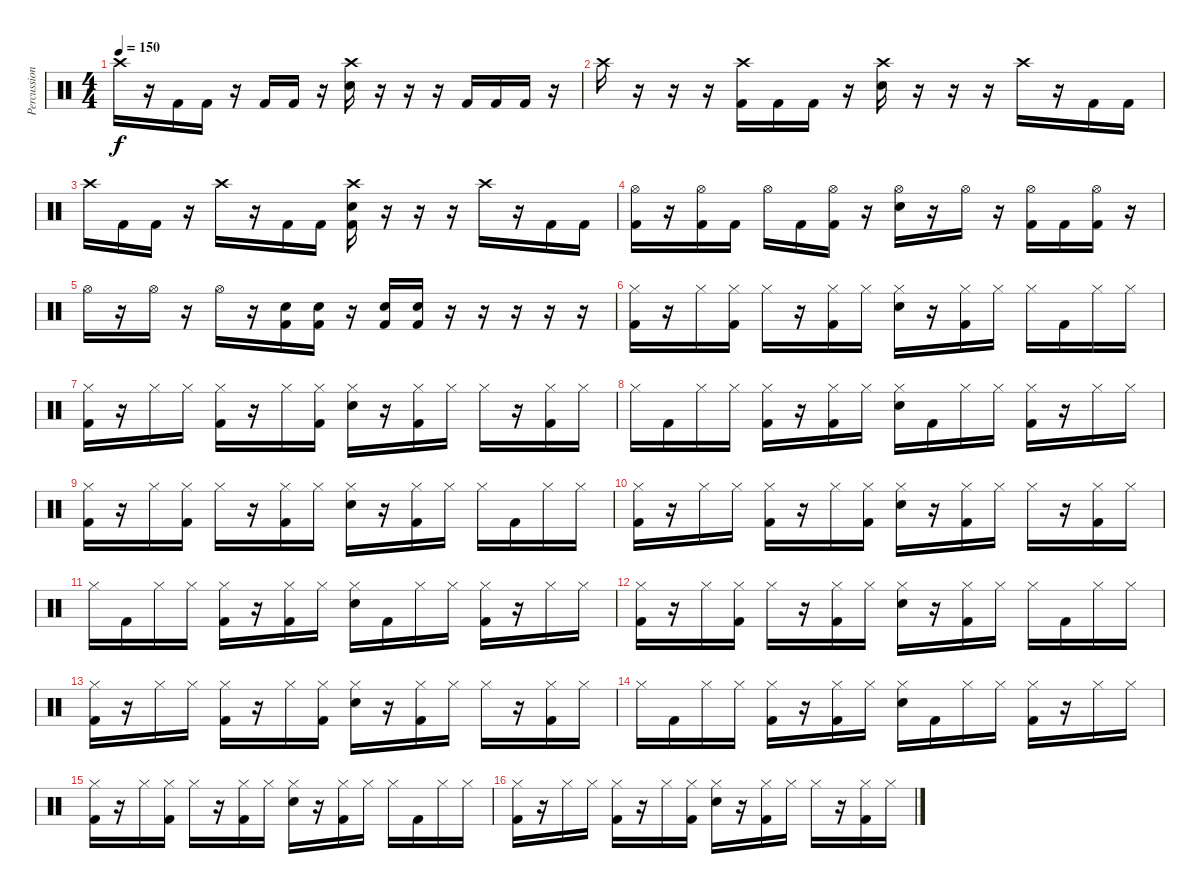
\track ("Percussion" "Percussion") {instrument percussion}
\staff {score}
\articulation defaults
\ts (4 4)
\tempo 150
\clef neutral
\ks c "Crash high (hit)".16{dy f}
r.16 "Kick (hit) 2".16 "Kick (hit) 2".16 r.16 "Kick (hit) 2".16 "Kick (hit) 2".16 r.16 ("Crash high (hit)" "Electric Snare (hit)").16 r.16 r.16 r.16 "Kick (hit) 2".16 "Kick (hit) 2".16 "Kick (hit) 2".16 r.16 |
"Crash high (hit)".16 r.16 r.16 r.16 ("Crash high (hit)" "Kick (hit) 2").16 "Kick (hit) 2".16 "Kick (hit) 2".16 r.16 ("Crash high (hit)" "Electric Snare (hit)").16 r.16 r.16 r.16 "Crash high (hit)".16 r.16 "Kick (hit) 2".16 "Kick (hit) 2".16 |
"Crash high (hit)".16 "Kick (hit) 2".16 "Kick (hit) 2".16 r.16 "Crash high (hit)".16 r.16 "Kick (hit) 2".16 "Kick (hit) 2".16 ("Crash high (hit)" "Electric Snare (hit)" "Kick (hit) 2").16 r.16 r.16 r.16 "Crash high (hit)".16 r.16 "Kick (hit) 2".16 "Kick (hit) 2".16 |
("Hi-Hat (open)" "Kick (hit) 2").16 r.16 ("Hi-Hat (open)" "Kick (hit) 2").16 "Kick (hit) 2".16 "Hi-Hat (open)".16 "Kick (hit) 2".16 ("Hi-Hat (open)" "Kick (hit) 2").16 r.16 ("Hi-Hat (open)" "Electric Snare (hit)").16 r.16 "Hi-Hat (open)".16 r.16 ("Hi-Hat (open)" "Kick (hit) 2").16 "Kick (hit) 2".16 ("Hi-Hat (open)" "Kick (hit) 2").16 r.16 |
"Hi-Hat (open)".16 r.16 "Hi-Hat (open)".16 r.16 "Hi-Hat (open)".16 r.16 ("Electric Snare (hit)" "Kick (hit) 2").16 ("Electric Snare (hit)" "Kick (hit) 2").16 r.16 ("Electric Snare (hit)" "Kick (hit) 2").16 ("Electric Snare (hit)" "Kick (hit) 2").16 r.16 r.16 r.16 r.16 r.16 |
("Hi-Hat (closed)" "Kick (hit) 2").16 r.16 "Hi-Hat (closed)".16 ("Hi-Hat (closed)" "Kick (hit) 2").16 "Hi-Hat (closed)".16 r.16 ("Hi-Hat (closed)" "Kick (hit) 2").16 "Hi-Hat (closed)".16 ("Electric Snare (hit)" "Hi-Hat (closed)").16 r.16 ("Hi-Hat (closed)" "Kick (hit) 2").16 "Hi-Hat (closed)".16 "Hi-Hat (closed)".16 "Kick (hit) 2".16 "Hi-Hat (closed)".16 "Hi-Hat (closed)".16 |
("Hi-Hat (closed)" "Kick (hit) 2").16 r.16 "Hi-Hat (closed)".16 "Hi-Hat (closed)".16 ("Hi-Hat (closed)" "Kick (hit) 2").16 r.16 "Hi-Hat (closed)".16 ("Hi-Hat (closed)" "Kick (hit) 2").16 ("Electric Snare (hit)" "Hi-Hat (closed)").16 r.16 ("Hi-Hat (closed)" "Kick (hit) 2").16 "Hi-Hat (closed)".16 "Hi-Hat (closed)".16 r.16 ("Hi-Hat (closed)" "Kick (hit) 2").16 "Hi-Hat (closed)".16 |
"Hi-Hat (closed)".16 "Kick (hit) 2".16 "Hi-Hat (closed)".16 "Hi-Hat (closed)".16 ("Hi-Hat (closed)" "Kick (hit) 2").16 r.16 ("Hi-Hat (closed)" "Kick (hit) 2").16 "Hi-Hat (closed)".16 ("Electric Snare (hit)" "Hi-Hat (closed)").16 "Kick (hit) 2".16 "Hi-Hat (closed)".16 "Hi-Hat (closed)".16 ("Hi-Hat (closed)" "Kick (hit) 2").16 r.16 "Hi-Hat (closed)".16 "Hi-Hat (closed)".16 |
("Hi-Hat (closed)" "Kick (hit) 2").16 r.16 "Hi-Hat (closed)".16 ("Hi-Hat (closed)" "Kick (hit) 2").16 "Hi-Hat (closed)".16 r.16 ("Hi-Hat (closed)" "Kick (hit) 2").16 "Hi-Hat (closed)".16 ("Electric Snare (hit)" "Hi-Hat (closed)").16 r.16 ("Hi-Hat (closed)" "Kick (hit) 2").16 "Hi-Hat (closed)".16 "Hi-Hat (closed)".16 "Kick (hit) 2".16 "Hi-Hat (closed)".16 "Hi-Hat (closed)".16 |
("Hi-Hat (closed)" "Kick (hit) 2").16 r.16 "Hi-Hat (closed)".16 "Hi-Hat (closed)".16 ("Hi-Hat (closed)" "Kick (hit) 2").16 r.16 "Hi-Hat (closed)".16 ("Hi-Hat (closed)" "Kick (hit) 2").16 ("Electric Snare (hit)" "Hi-Hat (closed)").16 r.16 ("Hi-Hat (closed)" "Kick (hit) 2").16 "Hi-Hat (closed)".16 "Hi-Hat (closed)".16 r.16 ("Hi-Hat (closed)" "Kick (hit) 2").16 "Hi-Hat (closed)".16 |
"Hi-Hat (closed)".16 "Kick (hit) 2".16 "Hi-Hat (closed)".16 "Hi-Hat (closed)".16 ("Hi-Hat (closed)" "Kick (hit) 2").16 r.16 ("Hi-Hat (closed)" "Kick (hit) 2").16 "Hi-Hat (closed)".16 ("Electric Snare (hit)" "Hi-Hat (closed)").16 "Kick (hit) 2".16 "Hi-Hat (closed)".16 "Hi-Hat (closed)".16 ("Hi-Hat (closed)" "Kick (hit) 2").16 r.16 "Hi-Hat (closed)".16 "Hi-Hat (closed)".16 |
("Hi-Hat (closed)" "Kick (hit) 2").16 r.16 "Hi-Hat (closed)".16 ("Hi-Hat (closed)" "Kick (hit) 2").16 "Hi-Hat (closed)".16 r.16 ("Hi-Hat (closed)" "Kick (hit) 2").16 "Hi-Hat (closed)".16 ("Electric Snare (hit)" "Hi-Hat (closed)").16 r.16 ("Hi-Hat (closed)" "Kick (hit) 2").16 "Hi-Hat (closed)".16 "Hi-Hat (closed)".16 "Kick (hit) 2".16 "Hi-Hat (closed)".16 "Hi-Hat (closed)".16 |
("Hi-Hat (closed)" "Kick (hit) 2").16 r.16 "Hi-Hat (closed)".16 "Hi-Hat (closed)".16 ("Hi-Hat (closed)" "Kick (hit) 2").16 r.16 "Hi-Hat (closed)".16 ("Hi-Hat (closed)" "Kick (hit) 2").16 ("Electric Snare (hit)" "Hi-Hat (closed)").16 r.16 ("Hi-Hat (closed)" "Kick (hit) 2").16 "Hi-Hat (closed)".16 "Hi-Hat (closed)".16 r.16 ("Hi-Hat (closed)" "Kick (hit) 2").16 "Hi-Hat (closed)".16 |
"Hi-Hat (closed)".16 "Kick (hit) 2".16 "Hi-Hat (closed)".16 "Hi-Hat (closed)".16 ("Hi-Hat (closed)" "Kick (hit) 2").16 r.16 ("Hi-Hat (closed)" "Kick (hit) 2").16 "Hi-Hat (closed)".16 ("Electric Snare (hit)" "Hi-Hat (closed)").16 "Kick (hit) 2".16 "Hi-Hat (closed)".16 "Hi-Hat (closed)".16 ("Hi-Hat (closed)" "Kick (hit) 2").16 r.16 "Hi-Hat (closed)".16 "Hi-Hat (closed)".16 |
("Hi-Hat (closed)" "Kick (hit) 2").16 r.16 "Hi-Hat (closed)".16 ("Hi-Hat (closed)" "Kick (hit) 2").16 "Hi-Hat (closed)".16 r.16 ("Hi-Hat (closed)" "Kick (hit) 2").16 "Hi-Hat (closed)".16 ("Electric Snare (hit)" "Hi-Hat (closed)").16 r.16 ("Hi-Hat (closed)" "Kick (hit) 2").16 "Hi-Hat (closed)".16 "Hi-Hat (closed)".16 "Kick (hit) 2".16 "Hi-Hat (closed)".16 "Hi-Hat (closed)".16 |
("Hi-Hat (closed)" "Kick (hit) 2").16 r.16 "Hi-Hat (closed)".16 "Hi-Hat (closed)".16 ("Hi-Hat (closed)" "Kick (hit) 2").16 r.16 "Hi-Hat (closed)".16 ("Hi-Hat (closed)" "Kick (hit) 2").16 ("Electric Snare (hit)" "Hi-Hat (closed)").16 r.16 ("Hi-Hat (closed)" "Kick (hit) 2").16 "Hi-Hat (closed)".16 "Hi-Hat (closed)".16 r.16 ("Hi-Hat (closed)" "Kick (hit) 2").16 "Hi-Hat (closed)".16
